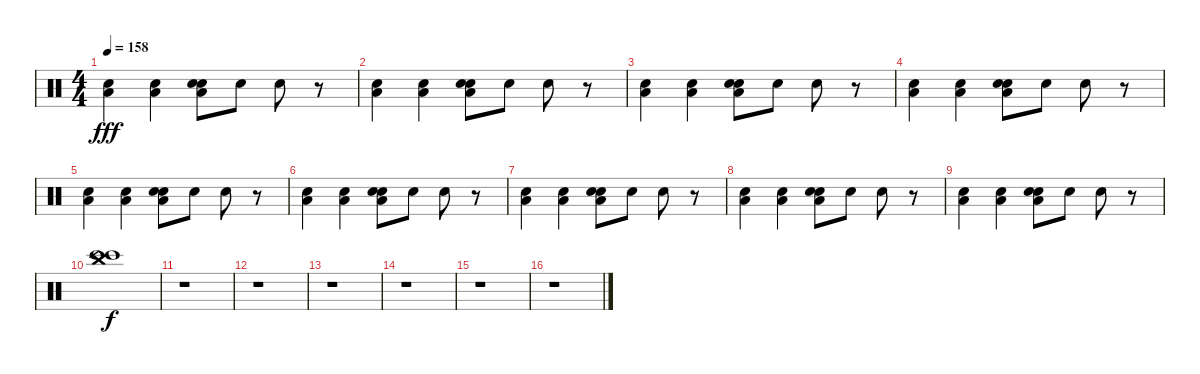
\track "" {instrument percussion}
\staff {score}
\articulation defaults
\ts (4 4)
\tempo 158
\clef neutral
\ks c
("Low Floor Tom (hit)" "Electric Snare (hit)").4{dy fff} ("Low Floor Tom (hit)" "Electric Snare (hit)").4 ("Electric Snare (hit)" "Low Floor Tom (hit)" "Electric Snare (hit)").8 "Electric Snare (hit)".8 "Electric Snare (hit)".8 r.8 |
("Low Floor Tom (hit)" "Electric Snare (hit)").4 ("Low Floor Tom (hit)" "Electric Snare (hit)").4 ("Electric Snare (hit)" "Low Floor Tom (hit)" "Electric Snare (hit)").8 "Electric Snare (hit)".8 "Electric Snare (hit)".8 r.8 |
("Low Floor Tom (hit)" "Electric Snare (hit)").4 ("Low Floor Tom (hit)" "Electric Snare (hit)").4 ("Electric Snare (hit)" "Low Floor Tom (hit)" "Electric Snare (hit)").8 "Electric Snare (hit)".8 "Electric Snare (hit)".8 r.8 |
("Low Floor Tom (hit)" "Electric Snare (hit)").4 ("Low Floor Tom (hit)" "Electric Snare (hit)").4 ("Electric Snare (hit)" "Low Floor Tom (hit)" "Electric Snare (hit)").8 "Electric Snare (hit)".8 "Electric Snare (hit)".8 r.8 |
("Low Floor Tom (hit)" "Electric Snare (hit)").4 ("Low Floor Tom (hit)" "Electric Snare (hit)").4 ("Electric Snare (hit)" "Low Floor Tom (hit)" "Electric Snare (hit)").8 "Electric Snare (hit)".8 "Electric Snare (hit)".8 r.8 |
("Low Floor Tom (hit)" "Electric Snare (hit)").4 ("Low Floor Tom (hit)" "Electric Snare (hit)").4 ("Electric Snare (hit)" "Low Floor Tom (hit)" "Electric Snare (hit)").8 "Electric Snare (hit)".8 "Electric Snare (hit)".8 r.8 |
("Low Floor Tom (hit)" "Electric Snare (hit)").4 ("Low Floor Tom (hit)" "Electric Snare (hit)").4 ("Electric Snare (hit)" "Low Floor Tom (hit)" "Electric Snare (hit)").8 "Electric Snare (hit)".8 "Electric Snare (hit)".8 r.8 |
("Low Floor Tom (hit)" "Electric Snare (hit)").4 ("Low Floor Tom (hit)" "Electric Snare (hit)").4 ("Electric Snare (hit)" "Low Floor Tom (hit)" "Electric Snare (hit)").8 "Electric Snare (hit)".8 "Electric Snare (hit)".8 r.8 |
("Low Floor Tom (hit)" "Electric Snare (hit)").4 ("Low Floor Tom (hit)" "Electric Snare (hit)").4 ("Electric Snare (hit)" "Low Floor Tom (hit)" "Electric Snare (hit)").8 "Electric Snare (hit)".8 "Electric Snare (hit)".8 r.8 |
("Bongo High (hit)" "Bongo High (hit)" "China (hit)" "China (hit)").1{dy f} |
r.1 |
r.1 |
r.1 |
r.1 |
r.1 |
r.1
